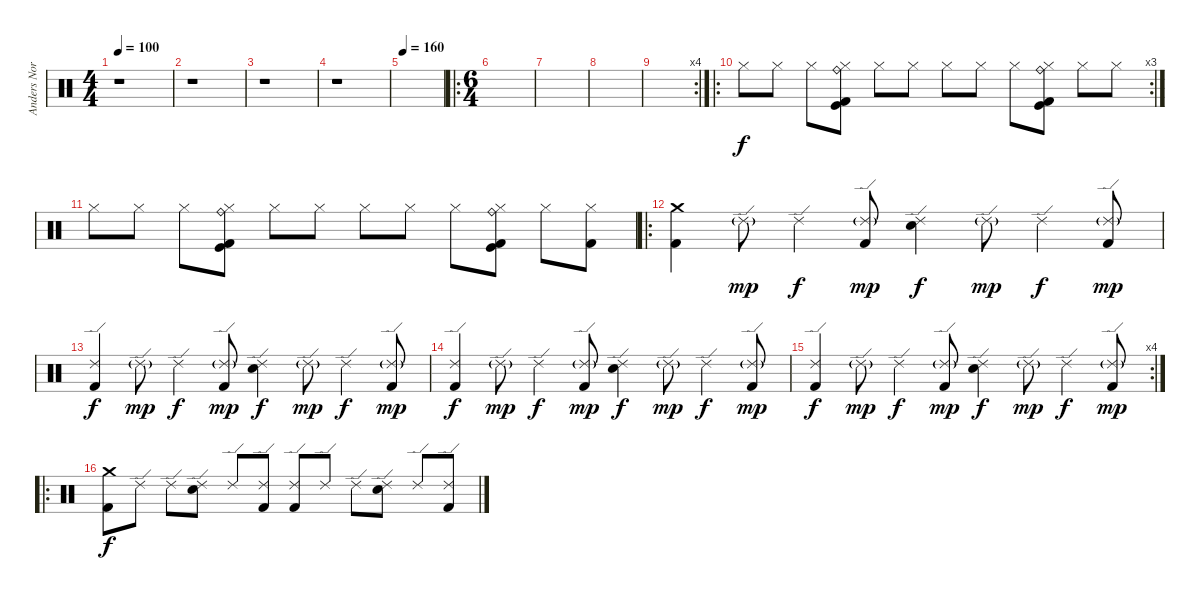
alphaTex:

\track ("Anders Nordin" "Anders Nor") {instrument percussion}
\staff {score}
\articulation defaults
\ts (4 4)
\tempo 100
\clef neutral
\ks c
r.1{dy f} |
r.1 |
r.1 |
r.1 |
\tempo 160
|
\ro
\ts (6 4)
|
|
|
\rc 4
|
\ro
\rc 3 "Hi-Hat (closed)".8 "Hi-Hat (closed)".8 "Hi-Hat (closed)".8
("Hi-Hat (closed)" "Ride (bell)" "Kick (hit) 2" "Kick (hit)").8 "Hi-Hat (closed)".8 "Hi-Hat (closed)".8 "Hi-Hat (closed)".8 "Hi-Hat (closed)".8 "Hi-Hat (closed)".8 ("Hi-Hat (closed)" "Ride (bell)" "Kick (hit) 2" "Kick (hit)").8 "Hi-Hat (closed)".8 "Hi-Hat (closed)".8 |
"Hi-Hat (closed)".8 "Hi-Hat (closed)".8 "Hi-Hat (closed)".8 ("Hi-Hat (closed)" "Ride (bell)" "Kick (hit) 2" "Kick (hit)").8 "Hi-Hat (closed)".8 "Hi-Hat (closed)".8 "Hi-Hat (closed)".8 "Hi-Hat (closed)".8 "Hi-Hat (closed)".8 ("Hi-Hat (closed)" "Ride (bell)" "Kick (hit) 2" "Kick (hit)").8 "Hi-Hat (closed)".8 ("Hi-Hat (closed)" "Kick (hit) 2").8 |
\ro
("Crash medium (hit)" "Kick (hit) 2").4 "Ride (edge) 2"{g}.8{dy mp} "Ride (edge) 2".4{dy f} ("Ride (edge) 2"{g} "Kick (hit) 2").8{dy mp} ("Ride (edge) 2" "Electric Snare (hit)").4{dy f} "Ride (edge) 2"{g}.8{dy mp} "Ride (edge) 2".4{dy f} ("Ride (edge) 2"{g} "Kick (hit) 2").8{dy mp} |
("Ride (edge) 2" "Kick (hit) 2").4{dy f} "Ride (edge) 2"{g}.8{dy mp} "Ride (edge) 2".4{dy f} ("Ride (edge) 2"{g} "Kick (hit) 2").8{dy mp} ("Ride (edge) 2" "Electric Snare (hit)").4{dy f} "Ride (edge) 2"{g}.8{dy mp} "Ride (edge) 2".4{dy f} ("Ride (edge) 2"{g} "Kick (hit) 2").8{dy mp} |
("Ride (edge) 2" "Kick (hit) 2").4{dy f} "Ride (edge) 2"{g}.8{dy mp} "Ride (edge) 2".4{dy f} ("Ride (edge) 2"{g} "Kick (hit) 2").8{dy mp} ("Ride (edge) 2" "Electric Snare (hit)").4{dy f} "Ride (edge) 2"{g}.8{dy mp} "Ride (edge) 2".4{dy f} ("Ride (edge) 2"{g} "Kick (hit) 2").8{dy mp} |
\rc 4
("Ride (edge) 2" "Kick (hit) 2").4{dy f} "Ride (edge) 2"{g}.8{dy mp} "Ride (edge) 2".4{dy f} ("Ride (edge) 2"{g} "Kick (hit) 2").8{dy mp} ("Ride (edge) 2" "Electric Snare (hit)").4{dy f} "Ride (edge) 2"{g}.8{dy mp} "Ride (edge) 2".4{dy f} ("Ride (edge) 2"{g} "Kick (hit) 2").8{dy mp} |
\ro
("Crash medium (hit)" "Kick (hit) 2").8{dy f} "Ride (edge) 2".8 "Ride (edge) 2".8 ("Ride (edge) 2" "Electric Snare (hit)").8 "Ride (edge) 2".8 ("Ride (edge) 2" "Kick (hit) 2").8 ("Ride (edge) 2" "Kick (hit) 2").8 "Ride (edge) 2".8 "Ride (edge) 2".8 ("Ride (edge) 2" "Electric Snare (hit)").8 "Ride (edge) 2".8 ("Ride (edge) 2" "Kick (hit) 2").8
